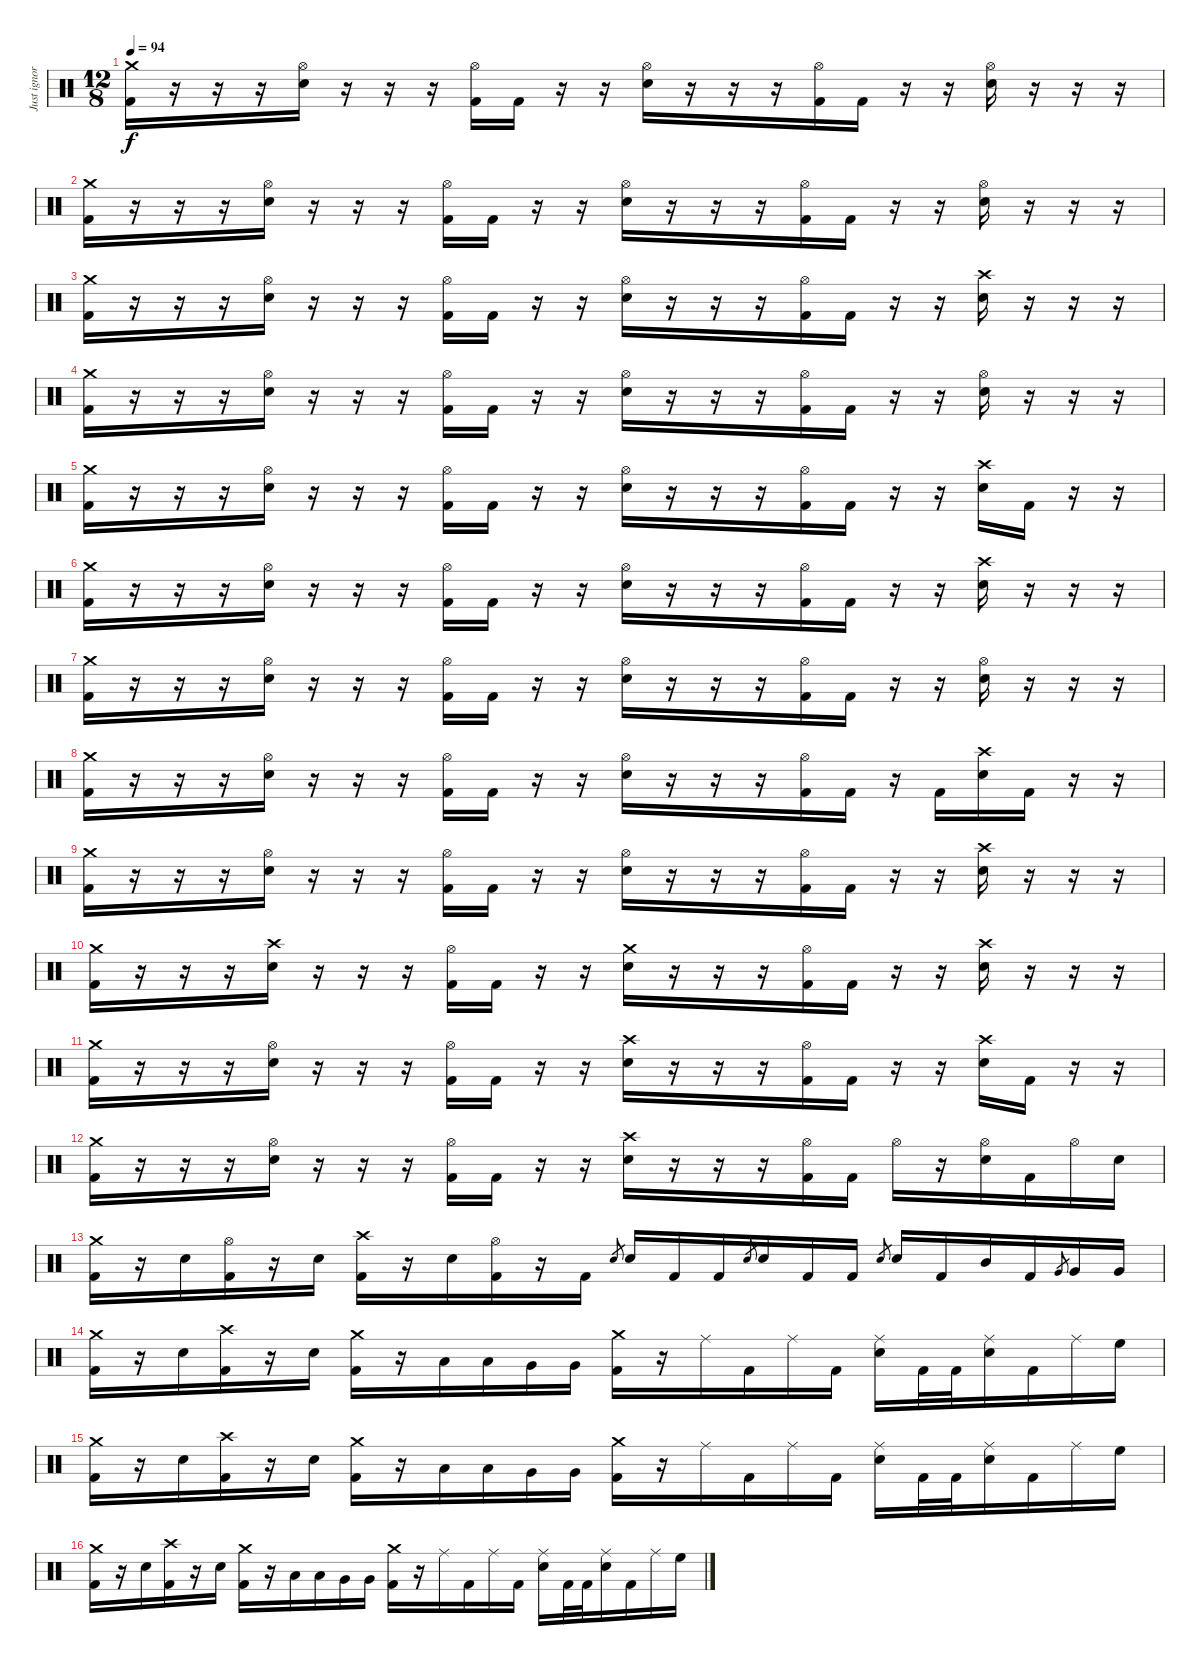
\track ("Just ignore this track" "Just ignor") {instrument percussion}
\staff {score}
\articulation defaults
\ts (12 8)
\tempo 94
\clef neutral
\ks c
("Crash medium (hit)" "Kick (hit) 2").16{dy f} r.16 r.16 r.16 ("Hi-Hat (open)" "Electric Snare (hit)").16 r.16 r.16 r.16 ("Hi-Hat (open)" "Kick (hit) 2").16 "Kick (hit) 2".16 r.16 r.16 ("Hi-Hat (open)" "Electric Snare (hit)").16 r.16 r.16 r.16 ("Hi-Hat (open)" "Kick (hit) 2").16 "Kick (hit) 2".16 r.16 r.16 ("Hi-Hat (open)" "Electric Snare (hit)").16 r.16 r.16 r.16 |
("Crash medium (hit)" "Kick (hit) 2").16 r.16 r.16 r.16 ("Hi-Hat (open)" "Electric Snare (hit)").16 r.16 r.16 r.16 ("Hi-Hat (open)" "Kick (hit) 2").16 "Kick (hit) 2".16 r.16 r.16 ("Hi-Hat (open)" "Electric Snare (hit)").16 r.16 r.16 r.16 ("Hi-Hat (open)" "Kick (hit) 2").16 "Kick (hit) 2".16 r.16 r.16 ("Hi-Hat (open)" "Electric Snare (hit)").16 r.16 r.16 r.16 |
("Crash medium (hit)" "Kick (hit) 2").16 r.16 r.16 r.16 ("Hi-Hat (open)" "Electric Snare (hit)").16 r.16 r.16 r.16 ("Hi-Hat (open)" "Kick (hit) 2").16 "Kick (hit) 2".16 r.16 r.16 ("Hi-Hat (open)" "Electric Snare (hit)").16 r.16 r.16 r.16 ("Hi-Hat (open)" "Kick (hit) 2").16 "Kick (hit) 2".16 r.16 r.16 ("Crash high (hit)" "Electric Snare (hit)").16 r.16 r.16 r.16 |
("Crash medium (hit)" "Kick (hit) 2").16 r.16 r.16 r.16 ("Hi-Hat (open)" "Electric Snare (hit)").16 r.16 r.16 r.16 ("Hi-Hat (open)" "Kick (hit) 2").16 "Kick (hit) 2".16 r.16 r.16 ("Hi-Hat (open)" "Electric Snare (hit)").16 r.16 r.16 r.16 ("Hi-Hat (open)" "Kick (hit) 2").16 "Kick (hit) 2".16 r.16 r.16 ("Hi-Hat (open)" "Electric Snare (hit)").16 r.16 r.16 r.16 |
("Crash medium (hit)" "Kick (hit) 2").16 r.16 r.16 r.16 ("Hi-Hat (open)" "Electric Snare (hit)").16 r.16 r.16 r.16 ("Hi-Hat (open)" "Kick (hit) 2").16 "Kick (hit) 2".16 r.16 r.16 ("Hi-Hat (open)" "Electric Snare (hit)").16 r.16 r.16 r.16 ("Hi-Hat (open)" "Kick (hit) 2").16 "Kick (hit) 2".16 r.16 r.16 ("Crash high (hit)" "Electric Snare (hit)").16 "Kick (hit) 2".16 r.16 r.16 |
("Crash medium (hit)" "Kick (hit) 2").16 r.16 r.16 r.16 ("Hi-Hat (open)" "Electric Snare (hit)").16 r.16 r.16 r.16 ("Hi-Hat (open)" "Kick (hit) 2").16 "Kick (hit) 2".16 r.16 r.16 ("Hi-Hat (open)" "Electric Snare (hit)").16 r.16 r.16 r.16 ("Hi-Hat (open)" "Kick (hit) 2").16 "Kick (hit) 2".16 r.16 r.16 ("Crash high (hit)" "Electric Snare (hit)").16 r.16 r.16 r.16 |
("Crash medium (hit)" "Kick (hit) 2").16 r.16 r.16 r.16 ("Hi-Hat (open)" "Electric Snare (hit)").16 r.16 r.16 r.16 ("Hi-Hat (open)" "Kick (hit) 2").16 "Kick (hit) 2".16 r.16 r.16 ("Hi-Hat (open)" "Electric Snare (hit)").16 r.16 r.16 r.16 ("Hi-Hat (open)" "Kick (hit) 2").16 "Kick (hit) 2".16 r.16 r.16 ("Hi-Hat (open)" "Electric Snare (hit)").16 r.16 r.16 r.16 |
("Crash medium (hit)" "Kick (hit) 2").16 r.16 r.16 r.16 ("Hi-Hat (open)" "Electric Snare (hit)").16 r.16 r.16 r.16 ("Hi-Hat (open)" "Kick (hit) 2").16 "Kick (hit) 2".16 r.16 r.16 ("Hi-Hat (open)" "Electric Snare (hit)").16 r.16 r.16 r.16 ("Hi-Hat (open)" "Kick (hit) 2").16 "Kick (hit) 2".16 r.16 "Kick (hit) 2".16 ("Crash high (hit)" "Electric Snare (hit)").16 "Kick (hit) 2".16 r.16 r.16 |
("Crash medium (hit)" "Kick (hit) 2").16 r.16 r.16 r.16 ("Hi-Hat (open)" "Electric Snare (hit)").16 r.16 r.16 r.16 ("Hi-Hat (open)" "Kick (hit) 2").16 "Kick (hit) 2".16 r.16 r.16 ("Hi-Hat (open)" "Electric Snare (hit)").16 r.16 r.16 r.16 ("Hi-Hat (open)" "Kick (hit) 2").16 "Kick (hit) 2".16 r.16 r.16 ("Crash high (hit)" "Electric Snare (hit)").16 r.16 r.16 r.16 |
("Crash medium (hit)" "Kick (hit) 2").16 r.16 r.16 r.16 ("Crash high (hit)" "Electric Snare (hit)").16 r.16 r.16 r.16 ("Hi-Hat (open)" "Kick (hit) 2").16 "Kick (hit) 2".16 r.16 r.16 ("Crash medium (hit)" "Electric Snare (hit)").16 r.16 r.16 r.16 ("Hi-Hat (open)" "Kick (hit) 2").16 "Kick (hit) 2".16 r.16 r.16 ("Crash high (hit)" "Electric Snare (hit)").16 r.16 r.16 r.16 |
("Crash medium (hit)" "Kick (hit) 2").16 r.16 r.16 r.16 ("Hi-Hat (open)" "Electric Snare (hit)").16 r.16 r.16 r.16 ("Hi-Hat (open)" "Kick (hit) 2").16 "Kick (hit) 2".16 r.16 r.16 ("Crash high (hit)" "Electric Snare (hit)").16 r.16 r.16 r.16 ("Hi-Hat (open)" "Kick (hit) 2").16 "Kick (hit) 2".16 r.16 r.16 ("Crash high (hit)" "Electric Snare (hit)").16 "Kick (hit) 2".16 r.16 r.16 |
("Crash medium (hit)" "Kick (hit) 2").16 r.16 r.16 r.16 ("Hi-Hat (open)" "Electric Snare (hit)").16 r.16 r.16 r.16 ("Hi-Hat (open)" "Kick (hit) 2").16 "Kick (hit) 2".16 r.16 r.16 ("Crash high (hit)" "Electric Snare (hit)").16 r.16 r.16 r.16 ("Hi-Hat (open)" "Kick (hit) 2").16 "Kick (hit) 2".16 "Hi-Hat (open)".16 r.16 ("Hi-Hat (open)" "Electric Snare (hit)").16 "Kick (hit) 2".16 "Hi-Hat (open)".16 "Electric Snare (hit)".16 |
("Crash medium (hit)" "Kick (hit) 2").16 r.16 "Electric Snare (hit)".16 ("Hi-Hat (open)" "Kick (hit) 2").16 r.16 "Electric Snare (hit)".16 ("Crash high (hit)" "Kick (hit) 2").16 r.16 "Electric Snare (hit)".16 ("Hi-Hat (open)" "Kick (hit) 2").16 r.16 "Kick (hit) 2".16 "Electric Snare (hit)".8{gr} "Electric Snare (hit)".16 "Kick (hit) 2".16 "Kick (hit) 2".16 "Electric Snare (hit)".8{gr} "Electric Snare (hit)".16 "Kick (hit) 2".16 "Kick (hit) 2".16 "Electric Snare (hit)".8{gr} "Electric Snare (hit)".16 "Kick (hit) 2".16 "Mid Tom (hit)".16 "Kick (hit) 2".16 "Very Low Tom (hit)".8{gr} "Very Low Tom (hit)".16 "Very Low Tom (hit)".16 |
("Crash medium (hit)" "Kick (hit) 2").16 r.16 "Electric Snare (hit)".16 ("Crash high (hit)" "Kick (hit) 2").16 r.16 "Electric Snare (hit)".16 ("Crash medium (hit)" "Kick (hit) 2").16 r.16 "Low Tom (hit)".16 "Low Tom (hit)".16 "Very Low Tom (hit)".16 "Very Low Tom (hit)".16 ("Crash medium (hit)" "Kick (hit) 2").16 r.16 "Ride (middle)".16 "Kick (hit) 2".16 "Ride (middle)".16 "Kick (hit) 2".16 ("Ride (middle)" "Electric Snare (hit)").16 "Kick (hit) 2".32 "Kick (hit) 2".32 ("Ride (middle)" "Electric Snare (hit)").16 "Kick (hit) 2".16 "Ride (middle)".16 "High Floor Tom (hit)".16 |
("Crash medium (hit)" "Kick (hit) 2").16 r.16 "Electric Snare (hit)".16 ("Crash high (hit)" "Kick (hit) 2").16 r.16 "Electric Snare (hit)".16 ("Crash medium (hit)" "Kick (hit) 2").16 r.16 "Low Tom (hit)".16 "Low Tom (hit)".16 "Very Low Tom (hit)".16 "Very Low Tom (hit)".16 ("Crash medium (hit)" "Kick (hit) 2").16 r.16 "Ride (middle)".16 "Kick (hit) 2".16 "Ride (middle)".16 "Kick (hit) 2".16 ("Ride (middle)" "Electric Snare (hit)").16 "Kick (hit) 2".32 "Kick (hit) 2".32 ("Ride (middle)" "Electric Snare (hit)").16 "Kick (hit) 2".16 "Ride (middle)".16 "High Floor Tom (hit)".16 |
("Crash medium (hit)" "Kick (hit) 2").16 r.16 "Electric Snare (hit)".16 ("Crash high (hit)" "Kick (hit) 2").16 r.16 "Electric Snare (hit)".16 ("Crash medium (hit)" "Kick (hit) 2").16 r.16 "Low Tom (hit)".16 "Low Tom (hit)".16 "Very Low Tom (hit)".16 "Very Low Tom (hit)".16 ("Crash medium (hit)" "Kick (hit) 2").16 r.16 "Ride (middle)".16 "Kick (hit) 2".16 "Ride (middle)".16 "Kick (hit) 2".16 ("Ride (middle)" "Electric Snare (hit)").16 "Kick (hit) 2".32 "Kick (hit) 2".32 ("Ride (middle)" "Electric Snare (hit)").16 "Kick (hit) 2".16 "Ride (middle)".16 "High Floor Tom (hit)".16
